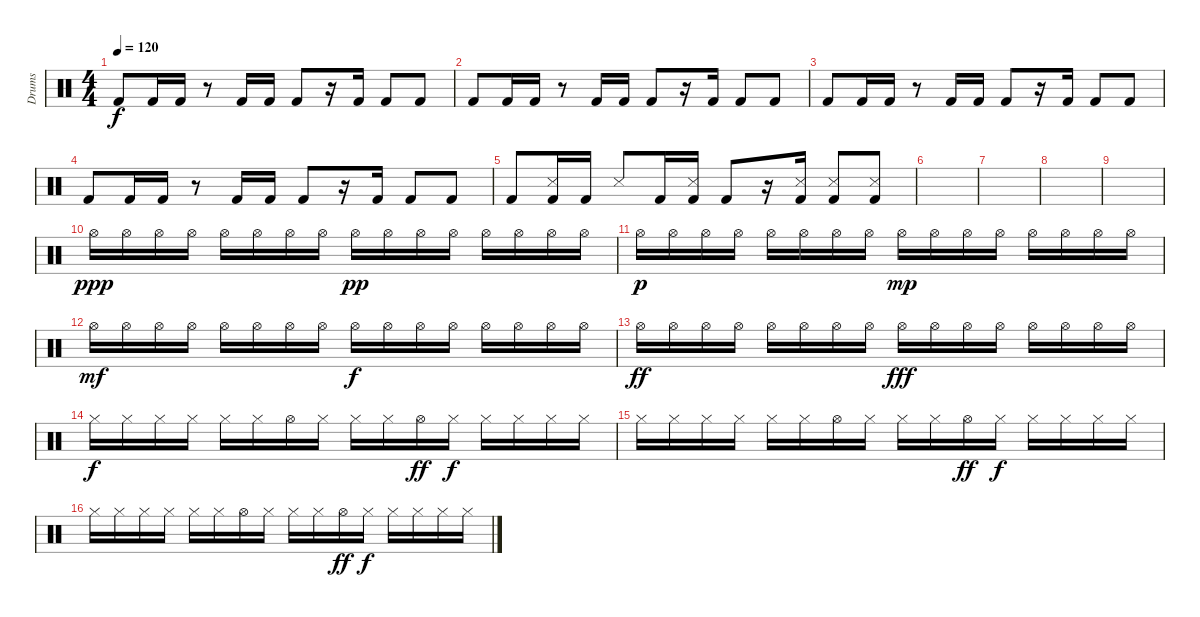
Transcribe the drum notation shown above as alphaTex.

\track ("Drums" "Drums") {instrument percussion}
\staff {score}
\articulation defaults
\ts (4 4)
\tempo 120
\clef neutral
\ks c "Kick (hit) 2".8{dy f} "Kick (hit) 2".16 "Kick (hit) 2".16
r.8 "Kick (hit) 2".16 "Kick (hit) 2".16 "Kick (hit) 2".8 r.16 "Kick (hit) 2".16 "Kick (hit) 2".8 "Kick (hit) 2".8 |
"Kick (hit) 2".8 "Kick (hit) 2".16 "Kick (hit) 2".16 r.8 "Kick (hit) 2".16 "Kick (hit) 2".16 "Kick (hit) 2".8 r.16 "Kick (hit) 2".16 "Kick (hit) 2".8 "Kick (hit) 2".8 |
"Kick (hit) 2".8 "Kick (hit) 2".16 "Kick (hit) 2".16 r.8 "Kick (hit) 2".16 "Kick (hit) 2".16 "Kick (hit) 2".8 r.16 "Kick (hit) 2".16 "Kick (hit) 2".8 "Kick (hit) 2".8 |
"Kick (hit) 2".8 "Kick (hit) 2".16 "Kick (hit) 2".16 r.8 "Kick (hit) 2".16 "Kick (hit) 2".16 "Kick (hit) 2".8 r.16 "Kick (hit) 2".16 "Kick (hit) 2".8 "Kick (hit) 2".8 |
"Kick (hit) 2".8 ("Snare (side stick) 3" "Kick (hit) 2").16 "Kick (hit) 2".16 "Snare (side stick) 3".8 "Kick (hit) 2".16 ("Snare (side stick) 3" "Kick (hit) 2").16 "Kick (hit) 2".8 r.16 ("Snare (side stick) 3" "Kick (hit) 2").16 ("Snare (side stick) 3" "Kick (hit) 2").8 ("Snare (side stick) 3" "Kick (hit) 2").8 |
|
|
|
|
"Hi-Hat (open)".16{dy ppp} "Hi-Hat (open)".16 "Hi-Hat (open)".16 "Hi-Hat (open)".16 "Hi-Hat (open)".16 "Hi-Hat (open)".16 "Hi-Hat (open)".16 "Hi-Hat (open)".16 "Hi-Hat (open)".16{dy pp} "Hi-Hat (open)".16 "Hi-Hat (open)".16 "Hi-Hat (open)".16 "Hi-Hat (open)".16 "Hi-Hat (open)".16 "Hi-Hat (open)".16 "Hi-Hat (open)".16 |
"Hi-Hat (open)".16{dy p} "Hi-Hat (open)".16 "Hi-Hat (open)".16 "Hi-Hat (open)".16 "Hi-Hat (open)".16 "Hi-Hat (open)".16 "Hi-Hat (open)".16 "Hi-Hat (open)".16 "Hi-Hat (open)".16{dy mp} "Hi-Hat (open)".16 "Hi-Hat (open)".16 "Hi-Hat (open)".16 "Hi-Hat (open)".16 "Hi-Hat (open)".16 "Hi-Hat (open)".16 "Hi-Hat (open)".16 |
"Hi-Hat (open)".16{dy mf} "Hi-Hat (open)".16 "Hi-Hat (open)".16 "Hi-Hat (open)".16 "Hi-Hat (open)".16 "Hi-Hat (open)".16 "Hi-Hat (open)".16 "Hi-Hat (open)".16 "Hi-Hat (open)".16{dy f} "Hi-Hat (open)".16 "Hi-Hat (open)".16 "Hi-Hat (open)".16 "Hi-Hat (open)".16 "Hi-Hat (open)".16 "Hi-Hat (open)".16 "Hi-Hat (open)".16 |
"Hi-Hat (open)".16{dy ff} "Hi-Hat (open)".16 "Hi-Hat (open)".16 "Hi-Hat (open)".16 "Hi-Hat (open)".16 "Hi-Hat (open)".16 "Hi-Hat (open)".16 "Hi-Hat (open)".16 "Hi-Hat (open)".16{dy fff} "Hi-Hat (open)".16 "Hi-Hat (open)".16 "Hi-Hat (open)".16 "Hi-Hat (open)".16 "Hi-Hat (open)".16 "Hi-Hat (open)".16 "Hi-Hat (open)".16 |
"Hi-Hat (closed)".16{dy f} "Hi-Hat (closed)".16 "Hi-Hat (closed)".16 "Hi-Hat (closed)".16 "Hi-Hat (closed)".16 "Hi-Hat (closed)".16 "Hi-Hat (open)".16 "Hi-Hat (closed)".16 "Hi-Hat (closed)".16 "Hi-Hat (closed)".16 "Hi-Hat (open)".16{dy ff} "Hi-Hat (closed)".16{dy f} "Hi-Hat (closed)".16 "Hi-Hat (closed)".16 "Hi-Hat (closed)".16 "Hi-Hat (closed)".16 |
"Hi-Hat (closed)".16 "Hi-Hat (closed)".16 "Hi-Hat (closed)".16 "Hi-Hat (closed)".16 "Hi-Hat (closed)".16 "Hi-Hat (closed)".16 "Hi-Hat (open)".16 "Hi-Hat (closed)".16 "Hi-Hat (closed)".16 "Hi-Hat (closed)".16 "Hi-Hat (open)".16{dy ff} "Hi-Hat (closed)".16{dy f} "Hi-Hat (closed)".16 "Hi-Hat (closed)".16 "Hi-Hat (closed)".16 "Hi-Hat (closed)".16 |
"Hi-Hat (closed)".16 "Hi-Hat (closed)".16 "Hi-Hat (closed)".16 "Hi-Hat (closed)".16 "Hi-Hat (closed)".16 "Hi-Hat (closed)".16 "Hi-Hat (open)".16 "Hi-Hat (closed)".16 "Hi-Hat (closed)".16 "Hi-Hat (closed)".16 "Hi-Hat (open)".16{dy ff} "Hi-Hat (closed)".16{dy f} "Hi-Hat (closed)".16 "Hi-Hat (closed)".16 "Hi-Hat (closed)".16 "Hi-Hat (closed)".16
